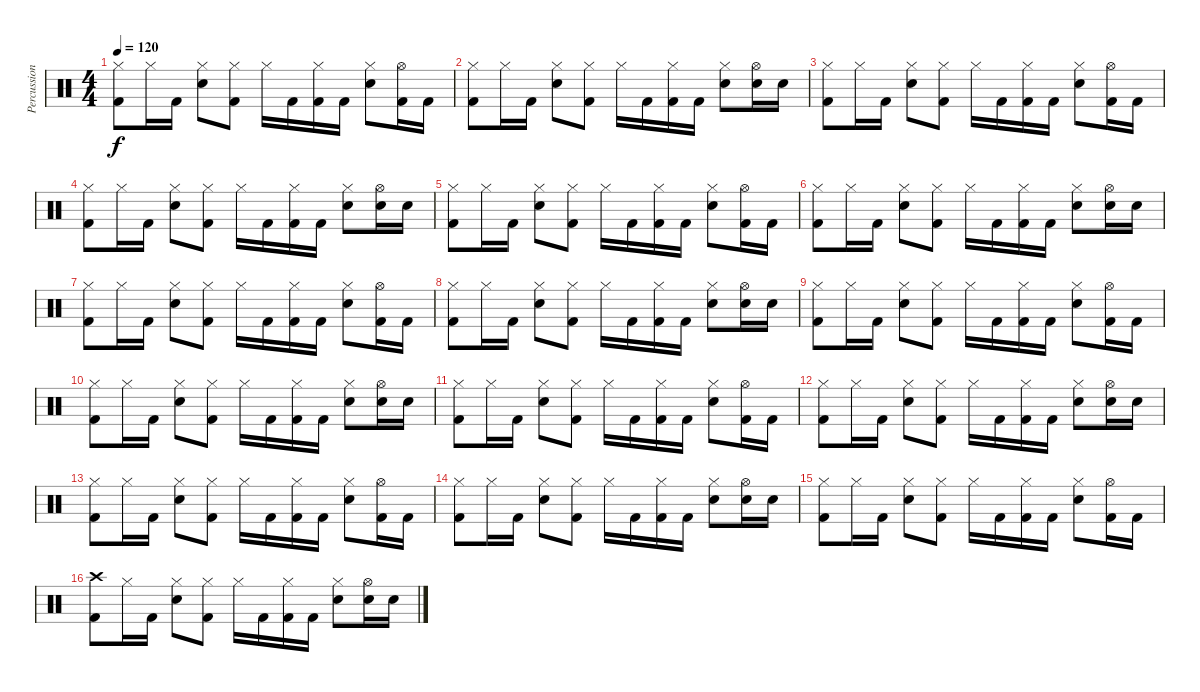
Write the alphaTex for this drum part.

\track ("Percussion" "Percussion") {instrument percussion}
\staff {score}
\articulation defaults
\ts (4 4)
\tempo 120
\clef neutral
\ks c
("Hi-Hat (closed)" "Kick (hit) 2").8{dy f} "Hi-Hat (closed)".16 "Kick (hit) 2".16 ("Hi-Hat (closed)" "Snare (hit) 2").8 ("Hi-Hat (closed)" "Kick (hit) 2").8 "Hi-Hat (closed)".16 "Kick (hit) 2".16 ("Hi-Hat (closed)" "Kick (hit) 2").16 "Kick (hit) 2".16 ("Hi-Hat (closed)" "Snare (hit) 2").8 ("Hi-Hat (open)" "Kick (hit) 2").16 "Kick (hit) 2".16 |
("Hi-Hat (closed)" "Kick (hit) 2").8 "Hi-Hat (closed)".16 "Kick (hit) 2".16 ("Hi-Hat (closed)" "Snare (hit) 2").8 ("Hi-Hat (closed)" "Kick (hit) 2").8 "Hi-Hat (closed)".16 "Kick (hit) 2".16 ("Hi-Hat (closed)" "Kick (hit) 2").16 "Kick (hit) 2".16 ("Hi-Hat (closed)" "Snare (hit) 2").8 ("Hi-Hat (open)" "Snare (hit) 2").16 "Snare (hit) 2".16 |
("Hi-Hat (closed)" "Kick (hit) 2").8 "Hi-Hat (closed)".16 "Kick (hit) 2".16 ("Hi-Hat (closed)" "Snare (hit) 2").8 ("Hi-Hat (closed)" "Kick (hit) 2").8 "Hi-Hat (closed)".16 "Kick (hit) 2".16 ("Hi-Hat (closed)" "Kick (hit) 2").16 "Kick (hit) 2".16 ("Hi-Hat (closed)" "Snare (hit) 2").8 ("Hi-Hat (open)" "Kick (hit) 2").16 "Kick (hit) 2".16 |
("Hi-Hat (closed)" "Kick (hit) 2").8 "Hi-Hat (closed)".16 "Kick (hit) 2".16 ("Hi-Hat (closed)" "Snare (hit) 2").8 ("Hi-Hat (closed)" "Kick (hit) 2").8 "Hi-Hat (closed)".16 "Kick (hit) 2".16 ("Hi-Hat (closed)" "Kick (hit) 2").16 "Kick (hit) 2".16 ("Hi-Hat (closed)" "Snare (hit) 2").8 ("Hi-Hat (open)" "Snare (hit) 2").16 "Snare (hit) 2".16 |
("Hi-Hat (closed)" "Kick (hit) 2").8 "Hi-Hat (closed)".16 "Kick (hit) 2".16 ("Hi-Hat (closed)" "Snare (hit) 2").8 ("Hi-Hat (closed)" "Kick (hit) 2").8 "Hi-Hat (closed)".16 "Kick (hit) 2".16 ("Hi-Hat (closed)" "Kick (hit) 2").16 "Kick (hit) 2".16 ("Hi-Hat (closed)" "Snare (hit) 2").8 ("Hi-Hat (open)" "Kick (hit) 2").16 "Kick (hit) 2".16 |
("Hi-Hat (closed)" "Kick (hit) 2").8 "Hi-Hat (closed)".16 "Kick (hit) 2".16 ("Hi-Hat (closed)" "Snare (hit) 2").8 ("Hi-Hat (closed)" "Kick (hit) 2").8 "Hi-Hat (closed)".16 "Kick (hit) 2".16 ("Hi-Hat (closed)" "Kick (hit) 2").16 "Kick (hit) 2".16 ("Hi-Hat (closed)" "Snare (hit) 2").8 ("Hi-Hat (open)" "Snare (hit) 2").16 "Snare (hit) 2".16 |
("Hi-Hat (closed)" "Kick (hit) 2").8 "Hi-Hat (closed)".16 "Kick (hit) 2".16 ("Hi-Hat (closed)" "Snare (hit) 2").8 ("Hi-Hat (closed)" "Kick (hit) 2").8 "Hi-Hat (closed)".16 "Kick (hit) 2".16 ("Hi-Hat (closed)" "Kick (hit) 2").16 "Kick (hit) 2".16 ("Hi-Hat (closed)" "Snare (hit) 2").8 ("Hi-Hat (open)" "Kick (hit) 2").16 "Kick (hit) 2".16 |
("Hi-Hat (closed)" "Kick (hit) 2").8 "Hi-Hat (closed)".16 "Kick (hit) 2".16 ("Hi-Hat (closed)" "Snare (hit) 2").8 ("Hi-Hat (closed)" "Kick (hit) 2").8 "Hi-Hat (closed)".16 "Kick (hit) 2".16 ("Hi-Hat (closed)" "Kick (hit) 2").16 "Kick (hit) 2".16 ("Hi-Hat (closed)" "Snare (hit) 2").8 ("Hi-Hat (open)" "Snare (hit) 2").16 "Snare (hit) 2".16 |
("Hi-Hat (closed)" "Kick (hit) 2").8 "Hi-Hat (closed)".16 "Kick (hit) 2".16 ("Hi-Hat (closed)" "Snare (hit) 2").8 ("Hi-Hat (closed)" "Kick (hit) 2").8 "Hi-Hat (closed)".16 "Kick (hit) 2".16 ("Hi-Hat (closed)" "Kick (hit) 2").16 "Kick (hit) 2".16 ("Hi-Hat (closed)" "Snare (hit) 2").8 ("Hi-Hat (open)" "Kick (hit) 2").16 "Kick (hit) 2".16 |
("Hi-Hat (closed)" "Kick (hit) 2").8 "Hi-Hat (closed)".16 "Kick (hit) 2".16 ("Hi-Hat (closed)" "Snare (hit) 2").8 ("Hi-Hat (closed)" "Kick (hit) 2").8 "Hi-Hat (closed)".16 "Kick (hit) 2".16 ("Hi-Hat (closed)" "Kick (hit) 2").16 "Kick (hit) 2".16 ("Hi-Hat (closed)" "Snare (hit) 2").8 ("Hi-Hat (open)" "Snare (hit) 2").16 "Snare (hit) 2".16 |
("Hi-Hat (closed)" "Kick (hit) 2").8 "Hi-Hat (closed)".16 "Kick (hit) 2".16 ("Hi-Hat (closed)" "Snare (hit) 2").8 ("Hi-Hat (closed)" "Kick (hit) 2").8 "Hi-Hat (closed)".16 "Kick (hit) 2".16 ("Hi-Hat (closed)" "Kick (hit) 2").16 "Kick (hit) 2".16 ("Hi-Hat (closed)" "Snare (hit) 2").8 ("Hi-Hat (open)" "Kick (hit) 2").16 "Kick (hit) 2".16 |
("Hi-Hat (closed)" "Kick (hit) 2").8 "Hi-Hat (closed)".16 "Kick (hit) 2".16 ("Hi-Hat (closed)" "Snare (hit) 2").8 ("Hi-Hat (closed)" "Kick (hit) 2").8 "Hi-Hat (closed)".16 "Kick (hit) 2".16 ("Hi-Hat (closed)" "Kick (hit) 2").16 "Kick (hit) 2".16 ("Hi-Hat (closed)" "Snare (hit) 2").8 ("Hi-Hat (open)" "Snare (hit) 2").16 "Snare (hit) 2".16 |
("Hi-Hat (closed)" "Kick (hit) 2").8 "Hi-Hat (closed)".16 "Kick (hit) 2".16 ("Hi-Hat (closed)" "Snare (hit) 2").8 ("Hi-Hat (closed)" "Kick (hit) 2").8 "Hi-Hat (closed)".16 "Kick (hit) 2".16 ("Hi-Hat (closed)" "Kick (hit) 2").16 "Kick (hit) 2".16 ("Hi-Hat (closed)" "Snare (hit) 2").8 ("Hi-Hat (open)" "Kick (hit) 2").16 "Kick (hit) 2".16 |
("Hi-Hat (closed)" "Kick (hit) 2").8 "Hi-Hat (closed)".16 "Kick (hit) 2".16 ("Hi-Hat (closed)" "Snare (hit) 2").8 ("Hi-Hat (closed)" "Kick (hit) 2").8 "Hi-Hat (closed)".16 "Kick (hit) 2".16 ("Hi-Hat (closed)" "Kick (hit) 2").16 "Kick (hit) 2".16 ("Hi-Hat (closed)" "Snare (hit) 2").8 ("Hi-Hat (open)" "Snare (hit) 2").16 "Snare (hit) 2".16 |
("Hi-Hat (closed)" "Kick (hit) 2").8 "Hi-Hat (closed)".16 "Kick (hit) 2".16 ("Hi-Hat (closed)" "Snare (hit) 2").8 ("Hi-Hat (closed)" "Kick (hit) 2").8 "Hi-Hat (closed)".16 "Kick (hit) 2".16 ("Hi-Hat (closed)" "Kick (hit) 2").16 "Kick (hit) 2".16 ("Hi-Hat (closed)" "Snare (hit) 2").8 ("Hi-Hat (open)" "Kick (hit) 2").16 "Kick (hit) 2".16 |
("Crash high (hit)" "Kick (hit) 2").8 "Hi-Hat (closed)".16 "Kick (hit) 2".16 ("Hi-Hat (closed)" "Snare (hit) 2").8 ("Hi-Hat (closed)" "Kick (hit) 2").8 "Hi-Hat (closed)".16 "Kick (hit) 2".16 ("Hi-Hat (closed)" "Kick (hit) 2").16 "Kick (hit) 2".16 ("Hi-Hat (closed)" "Snare (hit) 2").8 ("Hi-Hat (open)" "Snare (hit) 2").16 "Snare (hit) 2".16
